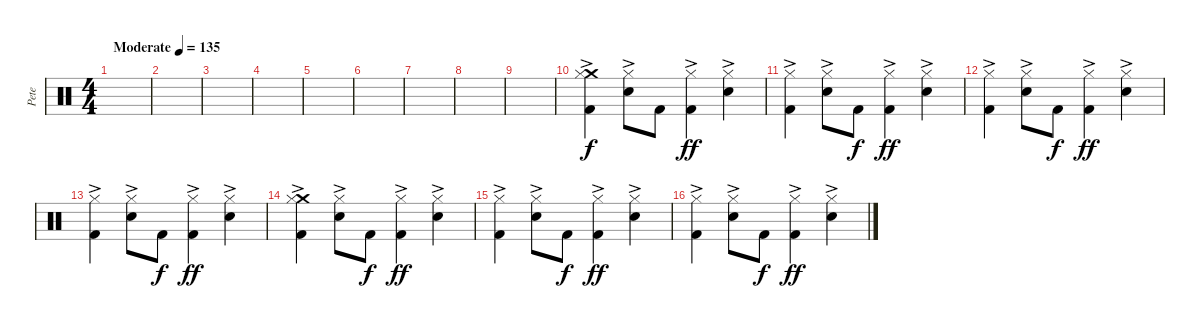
\track ("Pete" "Pete") {instrument percussion}
\staff {score}
\articulation defaults
\ts (4 4)
\tempo (135 "Moderate")
\clef neutral
\ks c
|
|
|
|
|
|
|
|
|
("Crash medium (hit)" "Hi-Hat (closed)"{ac} "Kick (hit) 2").4 ("Hi-Hat (closed)"{ac} "Electric Snare (hit)").8 "Kick (hit) 2".8{dy f} ("Hi-Hat (closed)"{ac} "Kick (hit) 2").4{dy ff} ("Hi-Hat (closed)"{ac} "Electric Snare (hit)").4 |
("Hi-Hat (closed)"{ac} "Kick (hit) 2").4 ("Hi-Hat (closed)"{ac} "Electric Snare (hit)").8 "Kick (hit) 2".8{dy f} ("Hi-Hat (closed)"{ac} "Kick (hit) 2").4{dy ff} ("Hi-Hat (closed)"{ac} "Electric Snare (hit)").4 |
("Hi-Hat (closed)"{ac} "Kick (hit) 2").4 ("Hi-Hat (closed)"{ac} "Electric Snare (hit)").8 "Kick (hit) 2".8{dy f} ("Hi-Hat (closed)"{ac} "Kick (hit) 2").4{dy ff} ("Hi-Hat (closed)"{ac} "Electric Snare (hit)").4 |
("Hi-Hat (closed)"{ac} "Kick (hit) 2").4 ("Hi-Hat (closed)"{ac} "Electric Snare (hit)").8 "Kick (hit) 2".8{dy f} ("Hi-Hat (closed)"{ac} "Kick (hit) 2").4{dy ff} ("Hi-Hat (closed)"{ac} "Electric Snare (hit)").4 |
("Crash medium (hit)" "Hi-Hat (closed)"{ac} "Kick (hit) 2").4 ("Hi-Hat (closed)"{ac} "Electric Snare (hit)").8 "Kick (hit) 2".8{dy f} ("Hi-Hat (closed)"{ac} "Kick (hit) 2").4{dy ff} ("Hi-Hat (closed)"{ac} "Electric Snare (hit)").4 |
("Hi-Hat (closed)"{ac} "Kick (hit) 2").4 ("Hi-Hat (closed)"{ac} "Electric Snare (hit)").8 "Kick (hit) 2".8{dy f} ("Hi-Hat (closed)"{ac} "Kick (hit) 2").4{dy ff} ("Hi-Hat (closed)"{ac} "Electric Snare (hit)").4 |
("Hi-Hat (closed)"{ac} "Kick (hit) 2").4 ("Hi-Hat (closed)"{ac} "Electric Snare (hit)").8 "Kick (hit) 2".8{dy f} ("Hi-Hat (closed)"{ac} "Kick (hit) 2").4{dy ff} ("Hi-Hat (closed)"{ac} "Electric Snare (hit)").4
